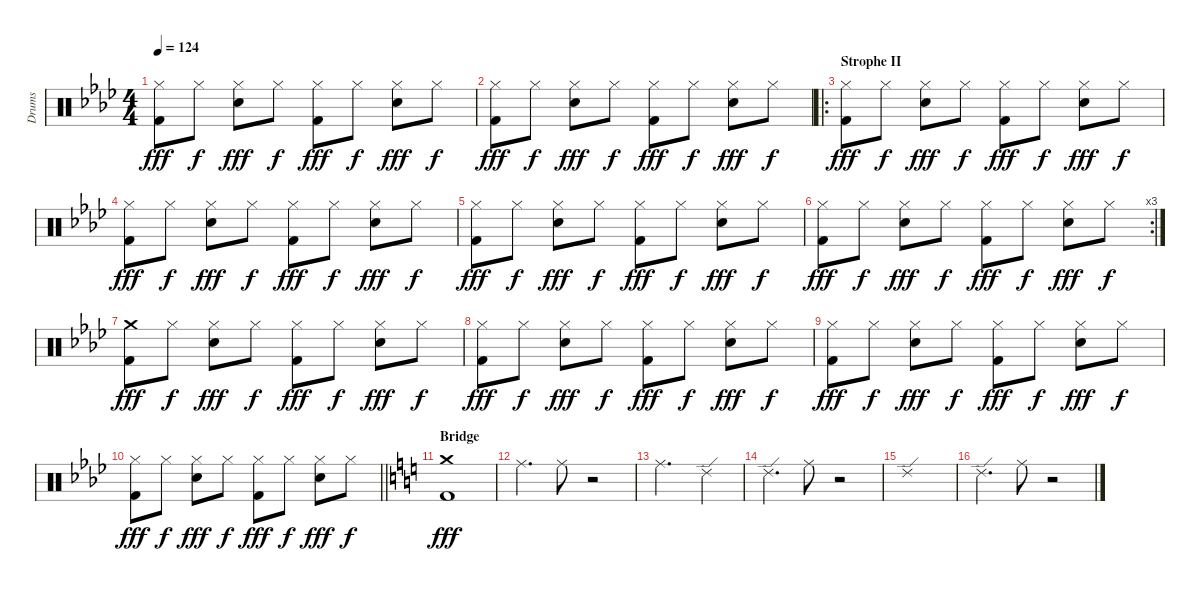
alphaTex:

\track ("Drums" "Drums") {instrument percussion}
\staff {score}
\articulation defaults
\ts (4 4)
\tempo 124
\clef neutral
\ks ab
("Hi-Hat (closed)" "Kick (hit) 2").8{dy fff} "Hi-Hat (closed)".8{dy f} ("Hi-Hat (closed)" "Snare (hit) 2").8{dy fff} "Hi-Hat (closed)".8{dy f} ("Hi-Hat (closed)" "Kick (hit) 2").8{dy fff} "Hi-Hat (closed)".8{dy f} ("Hi-Hat (closed)" "Snare (hit) 2").8{dy fff} "Hi-Hat (closed)".8{dy f} |
("Hi-Hat (closed)" "Kick (hit) 2").8{dy fff} "Hi-Hat (closed)".8{dy f} ("Hi-Hat (closed)" "Snare (hit) 2").8{dy fff} "Hi-Hat (closed)".8{dy f} ("Hi-Hat (closed)" "Kick (hit) 2").8{dy fff} "Hi-Hat (closed)".8{dy f} ("Hi-Hat (closed)" "Snare (hit) 2").8{dy fff} "Hi-Hat (closed)".8{dy f} |
\ro
\section ("" "Strophe II")
("Hi-Hat (closed)" "Kick (hit) 2").8{dy fff} "Hi-Hat (closed)".8{dy f} ("Hi-Hat (closed)" "Snare (hit) 2").8{dy fff} "Hi-Hat (closed)".8{dy f} ("Hi-Hat (closed)" "Kick (hit) 2").8{dy fff} "Hi-Hat (closed)".8{dy f} ("Hi-Hat (closed)" "Snare (hit) 2").8{dy fff} "Hi-Hat (closed)".8{dy f} |
("Hi-Hat (closed)" "Kick (hit) 2").8{dy fff} "Hi-Hat (closed)".8{dy f} ("Hi-Hat (closed)" "Snare (hit) 2").8{dy fff} "Hi-Hat (closed)".8{dy f} ("Hi-Hat (closed)" "Kick (hit) 2").8{dy fff} "Hi-Hat (closed)".8{dy f} ("Hi-Hat (closed)" "Snare (hit) 2").8{dy fff} "Hi-Hat (closed)".8{dy f} |
("Hi-Hat (closed)" "Kick (hit) 2").8{dy fff} "Hi-Hat (closed)".8{dy f} ("Hi-Hat (closed)" "Snare (hit) 2").8{dy fff} "Hi-Hat (closed)".8{dy f} ("Hi-Hat (closed)" "Kick (hit) 2").8{dy fff} "Hi-Hat (closed)".8{dy f} ("Hi-Hat (closed)" "Snare (hit) 2").8{dy fff} "Hi-Hat (closed)".8{dy f} |
\rc 3
("Hi-Hat (closed)" "Kick (hit) 2").8{dy fff} "Hi-Hat (closed)".8{dy f} ("Hi-Hat (closed)" "Snare (hit) 2").8{dy fff} "Hi-Hat (closed)".8{dy f} ("Hi-Hat (closed)" "Kick (hit) 2").8{dy fff} "Hi-Hat (closed)".8{dy f} ("Hi-Hat (closed)" "Snare (hit) 2").8{dy fff} "Hi-Hat (closed)".8{dy f} |
("Crash medium (hit)" "Kick (hit) 2").8{dy fff} "Hi-Hat (closed)".8{dy f} ("Hi-Hat (closed)" "Snare (hit) 2").8{dy fff} "Hi-Hat (closed)".8{dy f} ("Hi-Hat (closed)" "Kick (hit) 2").8{dy fff} "Hi-Hat (closed)".8{dy f} ("Hi-Hat (closed)" "Snare (hit) 2").8{dy fff} "Hi-Hat (closed)".8{dy f} |
("Hi-Hat (closed)" "Kick (hit) 2").8{dy fff} "Hi-Hat (closed)".8{dy f} ("Hi-Hat (closed)" "Snare (hit) 2").8{dy fff} "Hi-Hat (closed)".8{dy f} ("Hi-Hat (closed)" "Kick (hit) 2").8{dy fff} "Hi-Hat (closed)".8{dy f} ("Hi-Hat (closed)" "Snare (hit) 2").8{dy fff} "Hi-Hat (closed)".8{dy f} |
("Hi-Hat (closed)" "Kick (hit) 2").8{dy fff} "Hi-Hat (closed)".8{dy f} ("Hi-Hat (closed)" "Snare (hit) 2").8{dy fff} "Hi-Hat (closed)".8{dy f} ("Hi-Hat (closed)" "Kick (hit) 2").8{dy fff} "Hi-Hat (closed)".8{dy f} ("Hi-Hat (closed)" "Snare (hit) 2").8{dy fff} "Hi-Hat (closed)".8{dy f} |
\barLineRight lightlight
("Hi-Hat (closed)" "Kick (hit) 2").8{dy fff} "Hi-Hat (closed)".8{dy f} ("Hi-Hat (closed)" "Snare (hit) 2").8{dy fff} "Hi-Hat (closed)".8{dy f} ("Hi-Hat (closed)" "Kick (hit) 2").8{dy fff} "Hi-Hat (closed)".8{dy f} ("Hi-Hat (closed)" "Snare (hit) 2").8{dy fff} "Hi-Hat (closed)".8{dy f} |
\section ("" "Bridge")
\ks c
("Crash medium (hit)" "Kick (hit) 2").1{dy fff} |
"Ride (middle)".4{d} "Ride (middle)".8 r.2 |
"Ride (middle)".2{d} "Ride (edge) 2".4 |
"Ride (edge) 2".4{d} "Ride (middle)".8 r.2 |
"Ride (edge) 2".1 |
"Ride (edge) 2".4{d} "Ride (middle)".8 r.2
